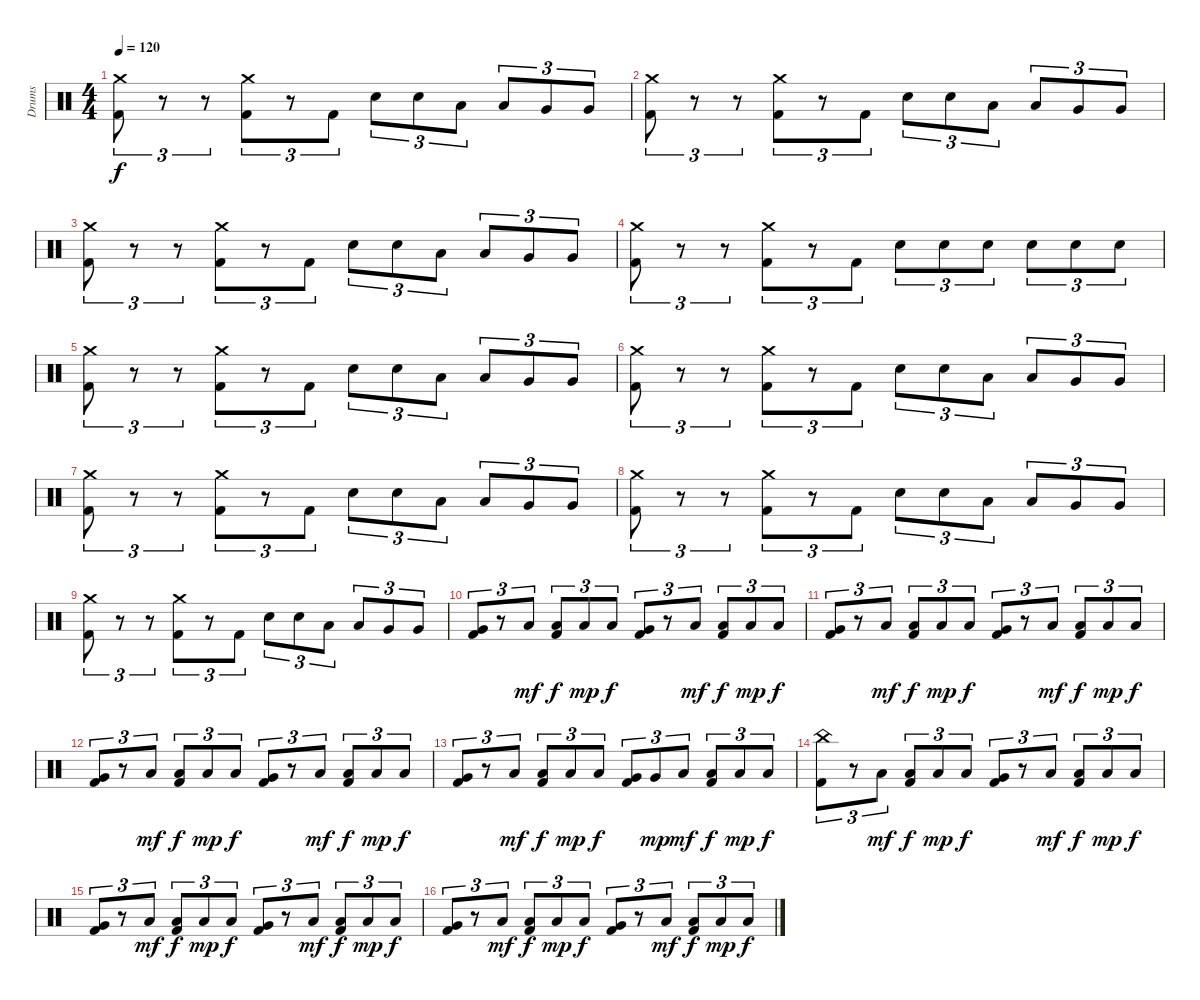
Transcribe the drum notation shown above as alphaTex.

\track ("Drums" "Drums") {instrument percussion}
\staff {score}
\articulation defaults
\ts (4 4)
\tempo 120
\clef neutral
\ks c
("Kick (hit) 2" "Crash medium (hit)").8{tu (3 2) dy f} r.8{tu (3 2)} r.8{tu (3 2)} ("Kick (hit) 2" "Crash medium (hit)").8{tu (3 2)} r.8{tu (3 2)} "Kick (hit) 2".8{tu (3 2)} "Electric Snare (hit)".8{tu (3 2)} "Electric Snare (hit)".8{tu (3 2)} "Low Tom (hit)".8{tu (3 2)} "Low Tom (hit)".8{tu (3 2)} "Very Low Tom (hit)".8{tu (3 2)} "Very Low Tom (hit)".8{tu (3 2)} |
("Kick (hit) 2" "Crash medium (hit)").8{tu (3 2)} r.8{tu (3 2)} r.8{tu (3 2)} ("Kick (hit) 2" "Crash medium (hit)").8{tu (3 2)} r.8{tu (3 2)} "Kick (hit) 2".8{tu (3 2)} "Electric Snare (hit)".8{tu (3 2)} "Electric Snare (hit)".8{tu (3 2)} "Low Tom (hit)".8{tu (3 2)} "Low Tom (hit)".8{tu (3 2)} "Very Low Tom (hit)".8{tu (3 2)} "Very Low Tom (hit)".8{tu (3 2)} |
("Kick (hit) 2" "Crash medium (hit)").8{tu (3 2)} r.8{tu (3 2)} r.8{tu (3 2)} ("Kick (hit) 2" "Crash medium (hit)").8{tu (3 2)} r.8{tu (3 2)} "Kick (hit) 2".8{tu (3 2)} "Electric Snare (hit)".8{tu (3 2)} "Electric Snare (hit)".8{tu (3 2)} "Low Tom (hit)".8{tu (3 2)} "Low Tom (hit)".8{tu (3 2)} "Very Low Tom (hit)".8{tu (3 2)} "Very Low Tom (hit)".8{tu (3 2)} |
("Kick (hit) 2" "Crash medium (hit)").8{tu (3 2)} r.8{tu (3 2)} r.8{tu (3 2)} ("Kick (hit) 2" "Crash medium (hit)").8{tu (3 2)} r.8{tu (3 2)} "Kick (hit) 2".8{tu (3 2)} "Electric Snare (hit)".8{tu (3 2)} "Electric Snare (hit)".8{tu (3 2)} "Electric Snare (hit)".8{tu (3 2)} "Electric Snare (hit)".8{tu (3 2)} "Electric Snare (hit)".8{tu (3 2)} "Electric Snare (hit)".8{tu (3 2)} |
("Kick (hit) 2" "Crash medium (hit)").8{tu (3 2)} r.8{tu (3 2)} r.8{tu (3 2)} ("Kick (hit) 2" "Crash medium (hit)").8{tu (3 2)} r.8{tu (3 2)} "Kick (hit) 2".8{tu (3 2)} "Electric Snare (hit)".8{tu (3 2)} "Electric Snare (hit)".8{tu (3 2)} "Low Tom (hit)".8{tu (3 2)} "Low Tom (hit)".8{tu (3 2)} "Very Low Tom (hit)".8{tu (3 2)} "Very Low Tom (hit)".8{tu (3 2)} |
("Kick (hit) 2" "Crash medium (hit)").8{tu (3 2)} r.8{tu (3 2)} r.8{tu (3 2)} ("Kick (hit) 2" "Crash medium (hit)").8{tu (3 2)} r.8{tu (3 2)} "Kick (hit) 2".8{tu (3 2)} "Electric Snare (hit)".8{tu (3 2)} "Electric Snare (hit)".8{tu (3 2)} "Low Tom (hit)".8{tu (3 2)} "Low Tom (hit)".8{tu (3 2)} "Very Low Tom (hit)".8{tu (3 2)} "Very Low Tom (hit)".8{tu (3 2)} |
("Kick (hit) 2" "Crash medium (hit)").8{tu (3 2)} r.8{tu (3 2)} r.8{tu (3 2)} ("Kick (hit) 2" "Crash medium (hit)").8{tu (3 2)} r.8{tu (3 2)} "Kick (hit) 2".8{tu (3 2)} "Electric Snare (hit)".8{tu (3 2)} "Electric Snare (hit)".8{tu (3 2)} "Low Tom (hit)".8{tu (3 2)} "Low Tom (hit)".8{tu (3 2)} "Very Low Tom (hit)".8{tu (3 2)} "Very Low Tom (hit)".8{tu (3 2)} |
("Kick (hit) 2" "Crash medium (hit)").8{tu (3 2)} r.8{tu (3 2)} r.8{tu (3 2)} ("Kick (hit) 2" "Crash medium (hit)").8{tu (3 2)} r.8{tu (3 2)} "Kick (hit) 2".8{tu (3 2)} "Electric Snare (hit)".8{tu (3 2)} "Electric Snare (hit)".8{tu (3 2)} "Low Tom (hit)".8{tu (3 2)} "Low Tom (hit)".8{tu (3 2)} "Very Low Tom (hit)".8{tu (3 2)} "Very Low Tom (hit)".8{tu (3 2)} |
("Kick (hit) 2" "Crash medium (hit)").8{tu (3 2)} r.8{tu (3 2)} r.8{tu (3 2)} ("Kick (hit) 2" "Crash medium (hit)").8{tu (3 2)} r.8{tu (3 2)} "Kick (hit) 2".8{tu (3 2)} "Electric Snare (hit)".8{tu (3 2)} "Electric Snare (hit)".8{tu (3 2)} "Low Tom (hit)".8{tu (3 2)} "Low Tom (hit)".8{tu (3 2)} "Very Low Tom (hit)".8{tu (3 2)} "Very Low Tom (hit)".8{tu (3 2)} |
("Kick (hit) 2" "Very Low Tom (hit)").8{tu (3 2)} r.8{tu (3 2)} "Low Tom (hit)".8{tu (3 2) dy mf} ("Kick (hit) 2" "Low Tom (hit)").8{tu (3 2) dy f} "Low Tom (hit)".8{tu (3 2) dy mp} "Low Tom (hit)".8{tu (3 2) dy f} ("Kick (hit) 2" "Very Low Tom (hit)").8{tu (3 2)} r.8{tu (3 2)} "Low Tom (hit)".8{tu (3 2) dy mf} ("Kick (hit) 2" "Low Tom (hit)").8{tu (3 2) dy f} "Low Tom (hit)".8{tu (3 2) dy mp} "Low Tom (hit)".8{tu (3 2) dy f} |
("Kick (hit) 2" "Very Low Tom (hit)").8{tu (3 2)} r.8{tu (3 2)} "Low Tom (hit)".8{tu (3 2) dy mf} ("Kick (hit) 2" "Low Tom (hit)").8{tu (3 2) dy f} "Low Tom (hit)".8{tu (3 2) dy mp} "Low Tom (hit)".8{tu (3 2) dy f} ("Kick (hit) 2" "Very Low Tom (hit)").8{tu (3 2)} r.8{tu (3 2)} "Low Tom (hit)".8{tu (3 2) dy mf} ("Kick (hit) 2" "Low Tom (hit)").8{tu (3 2) dy f} "Low Tom (hit)".8{tu (3 2) dy mp} "Low Tom (hit)".8{tu (3 2) dy f} |
("Kick (hit) 2" "Very Low Tom (hit)").8{tu (3 2)} r.8{tu (3 2)} "Low Tom (hit)".8{tu (3 2) dy mf} ("Kick (hit) 2" "Low Tom (hit)").8{tu (3 2) dy f} "Low Tom (hit)".8{tu (3 2) dy mp} "Low Tom (hit)".8{tu (3 2) dy f} ("Kick (hit) 2" "Very Low Tom (hit)").8{tu (3 2)} r.8{tu (3 2)} "Low Tom (hit)".8{tu (3 2) dy mf} ("Kick (hit) 2" "Low Tom (hit)").8{tu (3 2) dy f} "Low Tom (hit)".8{tu (3 2) dy mp} "Low Tom (hit)".8{tu (3 2) dy f} |
("Kick (hit) 2" "Very Low Tom (hit)").8{tu (3 2)} r.8{tu (3 2)} "Low Tom (hit)".8{tu (3 2) dy mf} ("Kick (hit) 2" "Low Tom (hit)").8{tu (3 2) dy f} "Low Tom (hit)".8{tu (3 2) dy mp} "Low Tom (hit)".8{tu (3 2) dy f} ("Kick (hit) 2" "Very Low Tom (hit)").8{tu (3 2)} "Very Low Tom (hit)".8{tu (3 2) dy mp} "Low Tom (hit)".8{tu (3 2) dy mf} ("Kick (hit) 2" "Low Tom (hit)").8{tu (3 2) dy f} "Low Tom (hit)".8{tu (3 2) dy mp} "Low Tom (hit)".8{tu (3 2) dy f} |
("Kick (hit) 2" "China (hit)").8{tu (3 2)} r.8{tu (3 2)} "Low Tom (hit)".8{tu (3 2) dy mf} ("Kick (hit) 2" "Low Tom (hit)").8{tu (3 2) dy f} "Low Tom (hit)".8{tu (3 2) dy mp} "Low Tom (hit)".8{tu (3 2) dy f} ("Kick (hit) 2" "Very Low Tom (hit)").8{tu (3 2)} r.8{tu (3 2)} "Low Tom (hit)".8{tu (3 2) dy mf} ("Kick (hit) 2" "Low Tom (hit)").8{tu (3 2) dy f} "Low Tom (hit)".8{tu (3 2) dy mp} "Low Tom (hit)".8{tu (3 2) dy f} |
("Kick (hit) 2" "Very Low Tom (hit)").8{tu (3 2)} r.8{tu (3 2)} "Low Tom (hit)".8{tu (3 2) dy mf} ("Kick (hit) 2" "Low Tom (hit)").8{tu (3 2) dy f} "Low Tom (hit)".8{tu (3 2) dy mp} "Low Tom (hit)".8{tu (3 2) dy f} ("Kick (hit) 2" "Very Low Tom (hit)").8{tu (3 2)} r.8{tu (3 2)} "Low Tom (hit)".8{tu (3 2) dy mf} ("Kick (hit) 2" "Low Tom (hit)").8{tu (3 2) dy f} "Low Tom (hit)".8{tu (3 2) dy mp} "Low Tom (hit)".8{tu (3 2) dy f} |
("Kick (hit) 2" "Very Low Tom (hit)").8{tu (3 2)} r.8{tu (3 2)} "Low Tom (hit)".8{tu (3 2) dy mf} ("Kick (hit) 2" "Low Tom (hit)").8{tu (3 2) dy f} "Low Tom (hit)".8{tu (3 2) dy mp} "Low Tom (hit)".8{tu (3 2) dy f} ("Kick (hit) 2" "Very Low Tom (hit)").8{tu (3 2)} r.8{tu (3 2)} "Low Tom (hit)".8{tu (3 2) dy mf} ("Kick (hit) 2" "Low Tom (hit)").8{tu (3 2) dy f} "Low Tom (hit)".8{tu (3 2) dy mp} "Low Tom (hit)".8{tu (3 2) dy f}
